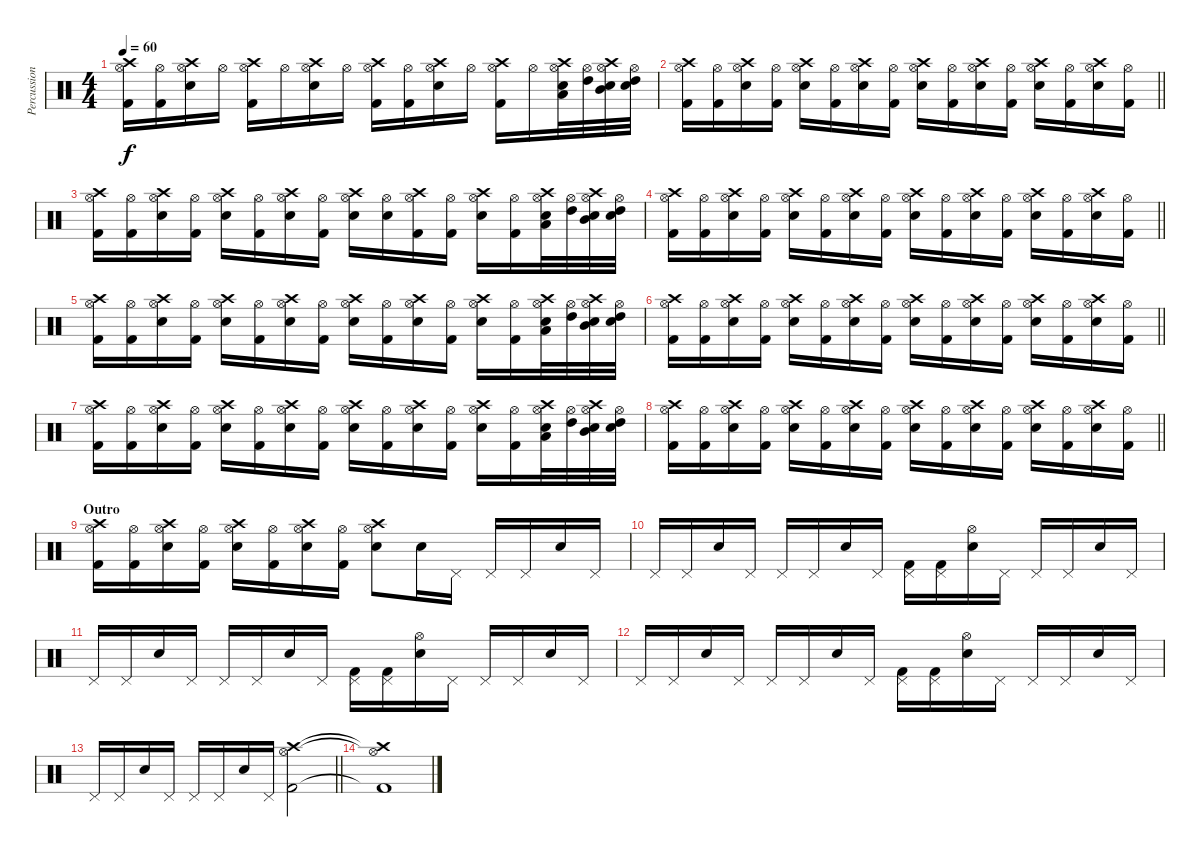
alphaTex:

\track ("Percussion" "Percussion") {instrument percussion}
\staff {score}
\articulation defaults
\ts (4 4)
\tempo 60
\clef neutral
\ks c
("Hi-Hat (open)" "Crash high (hit)" "Kick (hit) 2").16{dy f} ("Hi-Hat (open)" "Kick (hit) 2").16 ("Hi-Hat (open)" "Crash high (hit)" "Snare (hit) 2").16 "Hi-Hat (open)".16 ("Hi-Hat (open)" "Crash high (hit)" "Kick (hit) 2").16 "Hi-Hat (open)".16 ("Hi-Hat (open)" "Crash high (hit)" "Snare (hit) 2").16 "Hi-Hat (open)".16 ("Hi-Hat (open)" "Crash high (hit)" "Kick (hit) 2").16 ("Hi-Hat (open)" "Kick (hit) 2").16 ("Hi-Hat (open)" "Crash high (hit)" "Snare (hit) 2").16 "Hi-Hat (open)".16 ("Hi-Hat (open)" "Crash high (hit)" "Kick (hit) 2").16 "Hi-Hat (open)".16 ("Hi-Hat (open)" "Crash high (hit)" "Low Tom (hit)" "Snare (hit) 2").32 ("Hi-Hat (open)" "High Tom (hit)").32 ("Hi-Hat (open)" "Crash high (hit)" "Mid Tom (hit)" "Snare (hit) 2").32 ("Hi-Hat (open)" "High Tom (hit)" "Snare (hit) 2").32 |
\barLineRight lightlight
("Hi-Hat (open)" "Crash high (hit)" "Kick (hit) 2").16 ("Hi-Hat (open)" "Kick (hit) 2").16 ("Hi-Hat (open)" "Crash high (hit)" "Snare (hit) 2").16 ("Hi-Hat (open)" "Kick (hit) 2").16 ("Hi-Hat (open)" "Crash high (hit)" "Snare (hit) 2").16 ("Hi-Hat (open)" "Kick (hit) 2").16 ("Hi-Hat (open)" "Crash high (hit)" "Snare (hit) 2").16 ("Hi-Hat (open)" "Kick (hit) 2").16 ("Hi-Hat (open)" "Crash high (hit)" "Snare (hit) 2").16 ("Hi-Hat (open)" "Kick (hit) 2").16 ("Hi-Hat (open)" "Crash high (hit)" "Snare (hit) 2").16 ("Hi-Hat (open)" "Kick (hit) 2").16 ("Hi-Hat (open)" "Crash high (hit)" "Snare (hit) 2").16 ("Hi-Hat (open)" "Kick (hit) 2").16 ("Hi-Hat (open)" "Crash high (hit)" "Snare (hit) 2").16 ("Hi-Hat (open)" "Kick (hit) 2").16 |
("Hi-Hat (open)" "Crash high (hit)" "Kick (hit) 2").16 ("Hi-Hat (open)" "Kick (hit) 2").16 ("Hi-Hat (open)" "Crash high (hit)" "Snare (hit) 2").16 ("Hi-Hat (open)" "Kick (hit) 2").16 ("Hi-Hat (open)" "Crash high (hit)" "Snare (hit) 2").16 ("Hi-Hat (open)" "Kick (hit) 2").16 ("Hi-Hat (open)" "Crash high (hit)" "Snare (hit) 2").16 ("Hi-Hat (open)" "Kick (hit) 2").16 ("Hi-Hat (open)" "Crash high (hit)" "Snare (hit) 2").16 ("Hi-Hat (open)" "Snare (hit) 2").16 ("Hi-Hat (open)" "Crash high (hit)" "Kick (hit) 2").16 ("Hi-Hat (open)" "Kick (hit) 2").16 ("Hi-Hat (open)" "Crash high (hit)" "Snare (hit) 2").16 ("Hi-Hat (open)" "Kick (hit) 2").16 ("Hi-Hat (open)" "Crash high (hit)" "Low Tom (hit)" "Snare (hit) 2").32 ("Hi-Hat (open)" "High Tom (hit)").32 ("Hi-Hat (open)" "Crash high (hit)" "Mid Tom (hit)" "Snare (hit) 2").32 ("Hi-Hat (open)" "High Tom (hit)" "Snare (hit) 2").32 |
\barLineRight lightlight
("Hi-Hat (open)" "Crash high (hit)" "Kick (hit) 2").16 ("Hi-Hat (open)" "Kick (hit) 2").16 ("Hi-Hat (open)" "Crash high (hit)" "Snare (hit) 2").16 ("Hi-Hat (open)" "Kick (hit) 2").16 ("Hi-Hat (open)" "Crash high (hit)" "Snare (hit) 2").16 ("Hi-Hat (open)" "Kick (hit) 2").16 ("Hi-Hat (open)" "Crash high (hit)" "Snare (hit) 2").16 ("Hi-Hat (open)" "Kick (hit) 2").16 ("Hi-Hat (open)" "Crash high (hit)" "Snare (hit) 2").16 ("Hi-Hat (open)" "Kick (hit) 2").16 ("Hi-Hat (open)" "Crash high (hit)" "Snare (hit) 2").16 ("Hi-Hat (open)" "Kick (hit) 2").16 ("Hi-Hat (open)" "Crash high (hit)" "Snare (hit) 2").16 ("Hi-Hat (open)" "Kick (hit) 2").16 ("Hi-Hat (open)" "Crash high (hit)" "Snare (hit) 2").16 ("Hi-Hat (open)" "Kick (hit) 2").16 |
("Hi-Hat (open)" "Crash high (hit)" "Kick (hit) 2").16 ("Hi-Hat (open)" "Kick (hit) 2").16 ("Hi-Hat (open)" "Crash high (hit)" "Snare (hit) 2").16 ("Hi-Hat (open)" "Kick (hit) 2").16 ("Hi-Hat (open)" "Crash high (hit)" "Snare (hit) 2").16 ("Hi-Hat (open)" "Kick (hit) 2").16 ("Hi-Hat (open)" "Crash high (hit)" "Snare (hit) 2").16 ("Hi-Hat (open)" "Kick (hit) 2").16 ("Hi-Hat (open)" "Crash high (hit)" "Snare (hit) 2").16 ("Hi-Hat (open)" "Kick (hit) 2").16 ("Hi-Hat (open)" "Crash high (hit)" "Snare (hit) 2").16 ("Hi-Hat (open)" "Kick (hit) 2").16 ("Hi-Hat (open)" "Crash high (hit)" "Snare (hit) 2").16 ("Hi-Hat (open)" "Kick (hit) 2").16 ("Hi-Hat (open)" "Crash high (hit)" "Low Tom (hit)" "Snare (hit) 2").32 ("Hi-Hat (open)" "High Tom (hit)").32 ("Hi-Hat (open)" "Crash high (hit)" "Mid Tom (hit)" "Snare (hit) 2").32 ("Hi-Hat (open)" "High Tom (hit)" "Snare (hit) 2").32 |
\barLineRight lightlight
("Hi-Hat (open)" "Crash high (hit)" "Kick (hit) 2").16 ("Hi-Hat (open)" "Kick (hit) 2").16 ("Hi-Hat (open)" "Crash high (hit)" "Snare (hit) 2").16 ("Hi-Hat (open)" "Kick (hit) 2").16 ("Hi-Hat (open)" "Crash high (hit)" "Snare (hit) 2").16 ("Hi-Hat (open)" "Kick (hit) 2").16 ("Hi-Hat (open)" "Crash high (hit)" "Snare (hit) 2").16 ("Hi-Hat (open)" "Kick (hit) 2").16 ("Hi-Hat (open)" "Crash high (hit)" "Snare (hit) 2").16 ("Hi-Hat (open)" "Kick (hit) 2").16 ("Hi-Hat (open)" "Crash high (hit)" "Snare (hit) 2").16 ("Hi-Hat (open)" "Kick (hit) 2").16 ("Hi-Hat (open)" "Crash high (hit)" "Snare (hit) 2").16 ("Hi-Hat (open)" "Kick (hit) 2").16 ("Hi-Hat (open)" "Crash high (hit)" "Snare (hit) 2").16 ("Hi-Hat (open)" "Kick (hit) 2").16 |
("Hi-Hat (open)" "Crash high (hit)" "Kick (hit) 2").16 ("Hi-Hat (open)" "Kick (hit) 2").16 ("Hi-Hat (open)" "Crash high (hit)" "Snare (hit) 2").16 ("Hi-Hat (open)" "Kick (hit) 2").16 ("Hi-Hat (open)" "Crash high (hit)" "Snare (hit) 2").16 ("Hi-Hat (open)" "Kick (hit) 2").16 ("Hi-Hat (open)" "Crash high (hit)" "Snare (hit) 2").16 ("Hi-Hat (open)" "Kick (hit) 2").16 ("Hi-Hat (open)" "Crash high (hit)" "Snare (hit) 2").16 ("Hi-Hat (open)" "Kick (hit) 2").16 ("Hi-Hat (open)" "Crash high (hit)" "Snare (hit) 2").16 ("Hi-Hat (open)" "Kick (hit) 2").16 ("Hi-Hat (open)" "Crash high (hit)" "Snare (hit) 2").16 ("Hi-Hat (open)" "Kick (hit) 2").16 ("Hi-Hat (open)" "Crash high (hit)" "Low Tom (hit)" "Snare (hit) 2").32 ("Hi-Hat (open)" "High Tom (hit)").32 ("Hi-Hat (open)" "Crash high (hit)" "Mid Tom (hit)" "Snare (hit) 2").32 ("Hi-Hat (open)" "High Tom (hit)" "Snare (hit) 2").32 |
\barLineRight lightlight
("Hi-Hat (open)" "Crash high (hit)" "Kick (hit) 2").16 ("Hi-Hat (open)" "Kick (hit) 2").16 ("Hi-Hat (open)" "Crash high (hit)" "Snare (hit) 2").16 ("Hi-Hat (open)" "Kick (hit) 2").16 ("Hi-Hat (open)" "Crash high (hit)" "Snare (hit) 2").16 ("Hi-Hat (open)" "Kick (hit) 2").16 ("Hi-Hat (open)" "Crash high (hit)" "Snare (hit) 2").16 ("Hi-Hat (open)" "Kick (hit) 2").16 ("Hi-Hat (open)" "Crash high (hit)" "Snare (hit) 2").16 ("Hi-Hat (open)" "Kick (hit) 2").16 ("Hi-Hat (open)" "Crash high (hit)" "Snare (hit) 2").16 ("Hi-Hat (open)" "Kick (hit) 2").16 ("Hi-Hat (open)" "Crash high (hit)" "Snare (hit) 2").16 ("Hi-Hat (open)" "Kick (hit) 2").16 ("Hi-Hat (open)" "Crash high (hit)" "Snare (hit) 2").16 ("Hi-Hat (open)" "Kick (hit) 2").16 |
\section ("" "Outro")
("Hi-Hat (open)" "Crash high (hit)" "Kick (hit) 2").16 ("Hi-Hat (open)" "Kick (hit) 2").16 ("Hi-Hat (open)" "Crash high (hit)" "Snare (hit) 2").16 ("Hi-Hat (open)" "Kick (hit) 2").16 ("Hi-Hat (open)" "Crash high (hit)" "Snare (hit) 2").16 ("Hi-Hat (open)" "Kick (hit) 2").16 ("Hi-Hat (open)" "Crash high (hit)" "Snare (hit) 2").16 ("Hi-Hat (open)" "Kick (hit) 2").16 ("Hi-Hat (open)" "Crash high (hit)" "Snare (hit) 2").8 "Snare (hit) 2".16 "Pedal Hi-Hat (hit)".16 "Pedal Hi-Hat (hit)".16 "Pedal Hi-Hat (hit)".16 "Snare (hit) 2".16 "Pedal Hi-Hat (hit)".16 |
"Pedal Hi-Hat (hit)".16 "Pedal Hi-Hat (hit)".16 "Snare (hit) 2".16 "Pedal Hi-Hat (hit)".16 "Pedal Hi-Hat (hit)".16 "Pedal Hi-Hat (hit)".16 "Snare (hit) 2".16 "Pedal Hi-Hat (hit)".16 ("Pedal Hi-Hat (hit)" "Kick (hit) 2").16 ("Pedal Hi-Hat (hit)" "Kick (hit) 2").16 ("Hi-Hat (open)" "Snare (hit) 2").16 "Pedal Hi-Hat (hit)".16 "Pedal Hi-Hat (hit)".16 "Pedal Hi-Hat (hit)".16 "Snare (hit) 2".16 "Pedal Hi-Hat (hit)".16 |
"Pedal Hi-Hat (hit)".16 "Pedal Hi-Hat (hit)".16 "Snare (hit) 2".16 "Pedal Hi-Hat (hit)".16 "Pedal Hi-Hat (hit)".16 "Pedal Hi-Hat (hit)".16 "Snare (hit) 2".16 "Pedal Hi-Hat (hit)".16 ("Pedal Hi-Hat (hit)" "Kick (hit) 2").16 ("Pedal Hi-Hat (hit)" "Kick (hit) 2").16 ("Hi-Hat (open)" "Snare (hit) 2").16 "Pedal Hi-Hat (hit)".16 "Pedal Hi-Hat (hit)".16 "Pedal Hi-Hat (hit)".16 "Snare (hit) 2".16 "Pedal Hi-Hat (hit)".16 |
"Pedal Hi-Hat (hit)".16 "Pedal Hi-Hat (hit)".16 "Snare (hit) 2".16 "Pedal Hi-Hat (hit)".16 "Pedal Hi-Hat (hit)".16 "Pedal Hi-Hat (hit)".16 "Snare (hit) 2".16 "Pedal Hi-Hat (hit)".16 ("Pedal Hi-Hat (hit)" "Kick (hit) 2").16 ("Pedal Hi-Hat (hit)" "Kick (hit) 2").16 ("Hi-Hat (open)" "Snare (hit) 2").16 "Pedal Hi-Hat (hit)".16 "Pedal Hi-Hat (hit)".16 "Pedal Hi-Hat (hit)".16 "Snare (hit) 2".16 "Pedal Hi-Hat (hit)".16 |
\barLineRight lightlight "Pedal Hi-Hat (hit)".16 "Pedal Hi-Hat (hit)".16 "Snare (hit) 2".16 "Pedal Hi-Hat (hit)".16 "Pedal Hi-Hat (hit)".16 "Pedal Hi-Hat (hit)".16 "Snare (hit) 2".16 "Pedal Hi-Hat (hit)".16
("Crash high (hit)" "Hi-Hat (open)" "Kick (hit) 2").2 |
("Crash high (hit)"{t} "Hi-Hat (open)"{t} "Kick (hit) 2"{t}).1
